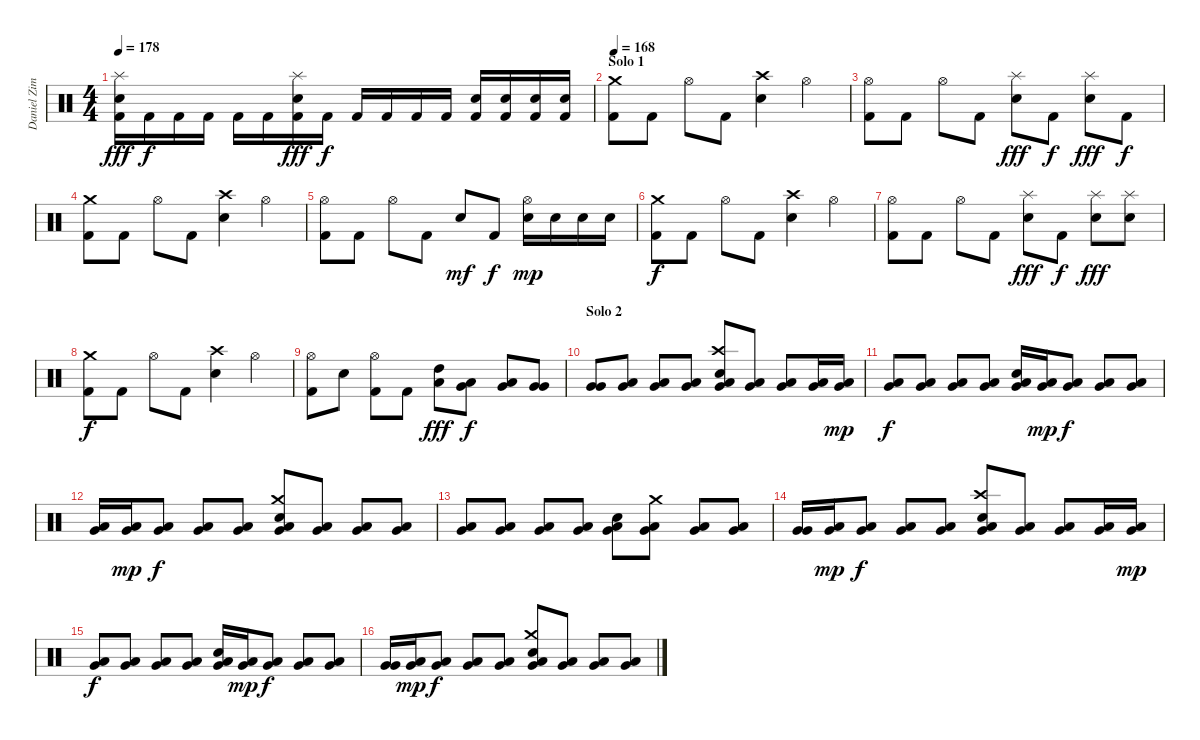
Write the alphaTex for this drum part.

\track ("Daniel Zimmermann" "Daniel Zim") {instrument percussion}
\staff {score}
\articulation defaults
\ts (4 4)
\tempo 178
\clef neutral
\ks c
("Kick (hit) 2" "Electric Snare (hit)" "Splash (hit)").16{dy fff} "Kick (hit) 2".16{dy f} "Kick (hit) 2".16 "Kick (hit) 2".16 "Kick (hit) 2".16 "Kick (hit) 2".16 ("Kick (hit) 2" "Electric Snare (hit)" "Splash (hit)").16{dy fff} "Kick (hit) 2".16{dy f} "Kick (hit) 2".16 "Kick (hit) 2".16 "Kick (hit) 2".16 "Kick (hit) 2".16 ("Kick (hit) 2" "Electric Snare (hit)").16 ("Kick (hit) 2" "Electric Snare (hit)").16 ("Kick (hit) 2" "Electric Snare (hit)").16 ("Kick (hit) 2" "Electric Snare (hit)").16 |
\section ("" "Solo 1")
\tempo 168
("Kick (hit) 2" "Crash medium (hit)").8 "Kick (hit) 2".8 "Hi-Hat (open)".8 "Kick (hit) 2".8 ("Electric Snare (hit)" "Crash high (hit)").4 "Hi-Hat (open)".4 |
("Kick (hit) 2" "Hi-Hat (open)").8 "Kick (hit) 2".8 "Hi-Hat (open)".8 "Kick (hit) 2".8 ("Electric Snare (hit)" "Splash (hit)").8{dy fff} "Kick (hit) 2".8{dy f} ("Electric Snare (hit)" "Splash (hit)").8{dy fff} "Kick (hit) 2".8{dy f} |
("Kick (hit) 2" "Crash medium (hit)").8 "Kick (hit) 2".8 "Hi-Hat (open)".8 "Kick (hit) 2".8 ("Electric Snare (hit)" "Crash high (hit)").4 "Hi-Hat (open)".4 |
("Kick (hit) 2" "Hi-Hat (open)").8 "Kick (hit) 2".8 "Hi-Hat (open)".8 "Kick (hit) 2".8 "Electric Snare (hit)".8{dy mf} "Kick (hit) 2".8{dy f} ("Electric Snare (hit)" "Hi-Hat (open)").16{dy mp} "Electric Snare (hit)".16 "Electric Snare (hit)".16 "Electric Snare (hit)".16 |
("Kick (hit) 2" "Crash medium (hit)").8{dy f} "Kick (hit) 2".8 "Hi-Hat (open)".8 "Kick (hit) 2".8 ("Electric Snare (hit)" "Crash high (hit)").4 "Hi-Hat (open)".4 |
("Kick (hit) 2" "Hi-Hat (open)").8 "Kick (hit) 2".8 "Hi-Hat (open)".8 "Kick (hit) 2".8 ("Electric Snare (hit)" "Splash (hit)").8{dy fff} "Kick (hit) 2".8{dy f} ("Electric Snare (hit)" "Splash (hit)").8{dy fff} ("Electric Snare (hit)" "Splash (hit)").8 |
("Kick (hit) 2" "Crash medium (hit)").8{dy f} "Kick (hit) 2".8 "Hi-Hat (open)".8 "Kick (hit) 2".8 ("Electric Snare (hit)" "Crash high (hit)").4 "Hi-Hat (open)".4 |
("Kick (hit) 2" "Hi-Hat (open)").8 "Electric Snare (hit)".8 ("Kick (hit) 2" "Hi-Hat (open)").8 "Kick (hit) 2".8 ("High Tom (hit)" "Low Tom (hit)").8{dy fff} ("Low Tom (hit)" "Very Low Tom (hit)").8{dy f} ("Low Tom (hit)" "Very Low Tom (hit)").8 ("Very Low Tom (hit)" "Very Low Tom (hit)").8 |
\section ("" "Solo 2")
("Very Low Tom (hit)" "Very Low Tom (hit)").8 ("Very Low Tom (hit)" "Low Floor Tom (hit)").8 ("Very Low Tom (hit)" "Low Floor Tom (hit)").8 ("Very Low Tom (hit)" "Low Floor Tom (hit)").8 ("Very Low Tom (hit)" "Low Floor Tom (hit)" "Electric Snare (hit)" "Crash high (hit)").8 ("Very Low Tom (hit)" "Low Floor Tom (hit)").8 ("Very Low Tom (hit)" "Low Floor Tom (hit)").8 ("Very Low Tom (hit)" "Low Floor Tom (hit)").16 ("Very Low Tom (hit)" "Low Floor Tom (hit)").16{dy mp} |
("Very Low Tom (hit)" "Low Floor Tom (hit)").8{dy f} ("Very Low Tom (hit)" "Low Floor Tom (hit)").8 ("Very Low Tom (hit)" "Low Floor Tom (hit)").8 ("Very Low Tom (hit)" "Low Floor Tom (hit)").8 ("Very Low Tom (hit)" "Low Floor Tom (hit)" "Electric Snare (hit)").16 ("Very Low Tom (hit)" "Low Floor Tom (hit)").16{dy mp} ("Very Low Tom (hit)" "Low Floor Tom (hit)").8{dy f} ("Very Low Tom (hit)" "Low Floor Tom (hit)").8 ("Very Low Tom (hit)" "Low Floor Tom (hit)").8 |
("Very Low Tom (hit)" "Low Floor Tom (hit)").16 ("Very Low Tom (hit)" "Low Floor Tom (hit)").16{dy mp} ("Very Low Tom (hit)" "Low Floor Tom (hit)").8{dy f} ("Very Low Tom (hit)" "Low Floor Tom (hit)").8 ("Very Low Tom (hit)" "Low Floor Tom (hit)").8 ("Very Low Tom (hit)" "Low Floor Tom (hit)" "Electric Snare (hit)" "Crash medium (hit)").8 ("Very Low Tom (hit)" "Low Floor Tom (hit)").8 ("Very Low Tom (hit)" "Low Floor Tom (hit)").8 ("Very Low Tom (hit)" "Low Floor Tom (hit)").8 |
("Very Low Tom (hit)" "Low Floor Tom (hit)").8 ("Very Low Tom (hit)" "Low Floor Tom (hit)").8 ("Very Low Tom (hit)" "Low Floor Tom (hit)").8 ("Very Low Tom (hit)" "Low Floor Tom (hit)").8 ("Very Low Tom (hit)" "Low Floor Tom (hit)" "Electric Snare (hit)").8 ("Very Low Tom (hit)" "Low Floor Tom (hit)" "Crash medium (hit)").8 ("Very Low Tom (hit)" "Low Floor Tom (hit)").8 ("Very Low Tom (hit)" "Low Floor Tom (hit)").8 |
("Very Low Tom (hit)" "Very Low Tom (hit)").16 ("Very Low Tom (hit)" "Low Floor Tom (hit)").16{dy mp} ("Very Low Tom (hit)" "Low Floor Tom (hit)").8{dy f} ("Very Low Tom (hit)" "Low Floor Tom (hit)").8 ("Very Low Tom (hit)" "Low Floor Tom (hit)").8 ("Very Low Tom (hit)" "Low Floor Tom (hit)" "Electric Snare (hit)" "Crash high (hit)").8 ("Very Low Tom (hit)" "Low Floor Tom (hit)").8 ("Very Low Tom (hit)" "Low Floor Tom (hit)").8 ("Very Low Tom (hit)" "Low Floor Tom (hit)").16 ("Very Low Tom (hit)" "Low Floor Tom (hit)").16{dy mp} |
("Very Low Tom (hit)" "Low Floor Tom (hit)").8{dy f} ("Very Low Tom (hit)" "Low Floor Tom (hit)").8 ("Very Low Tom (hit)" "Low Floor Tom (hit)").8 ("Very Low Tom (hit)" "Low Floor Tom (hit)").8 ("Very Low Tom (hit)" "Low Floor Tom (hit)" "Electric Snare (hit)").16 ("Very Low Tom (hit)" "Low Floor Tom (hit)").16{dy mp} ("Very Low Tom (hit)" "Low Floor Tom (hit)").8{dy f} ("Very Low Tom (hit)" "Low Floor Tom (hit)").8 ("Very Low Tom (hit)" "Low Floor Tom (hit)").8 |
("Very Low Tom (hit)" "Very Low Tom (hit)").16 ("Very Low Tom (hit)" "Low Floor Tom (hit)").16{dy mp} ("Very Low Tom (hit)" "Low Floor Tom (hit)").8{dy f} ("Very Low Tom (hit)" "Low Floor Tom (hit)").8 ("Very Low Tom (hit)" "Low Floor Tom (hit)").8 ("Very Low Tom (hit)" "Low Floor Tom (hit)" "Electric Snare (hit)" "Crash medium (hit)").8 ("Very Low Tom (hit)" "Low Floor Tom (hit)").8 ("Very Low Tom (hit)" "Low Floor Tom (hit)").8 ("Very Low Tom (hit)" "Low Floor Tom (hit)").8
